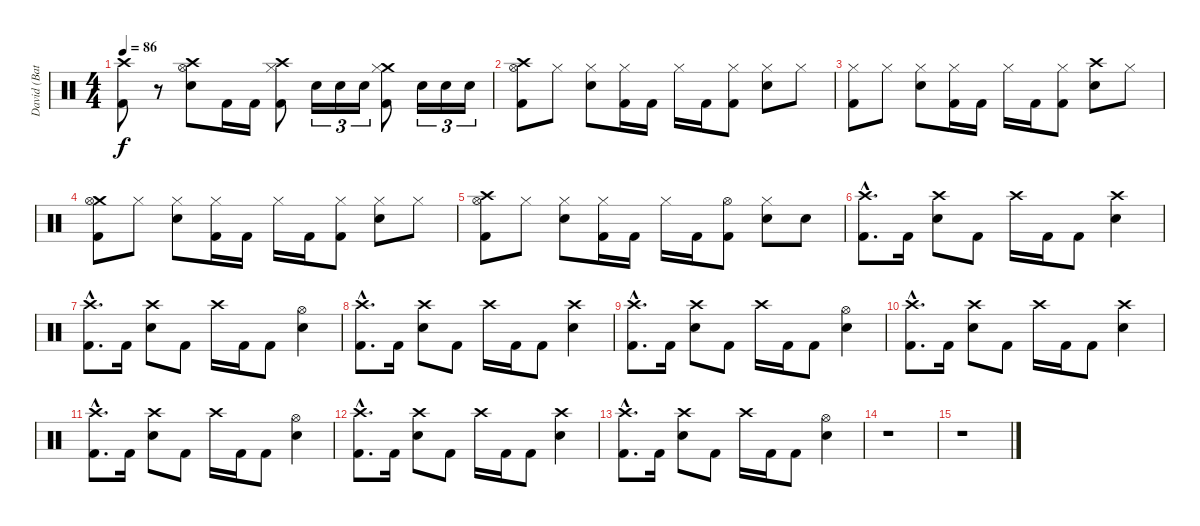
\track ("David (Batterie)" "David (Bat") {instrument percussion}
\staff {score}
\articulation defaults
\ts (4 4)
\tempo 86
\clef neutral
\ks c
("Crash high (hit)" "Kick (hit) 2").8{dy f} r.8 ("Crash high (hit)" "Hi-Hat (open)" "Electric Snare (hit)").8 "Kick (hit) 2".16 "Kick (hit) 2".16 ("Crash high (hit)" "Hi-Hat (closed)" "Kick (hit) 2").8 "Electric Snare (hit)".16{tu (3 2)} "Electric Snare (hit)".16{tu (3 2)} "Electric Snare (hit)".16{tu (3 2)} ("Crash medium (hit)" "Hi-Hat (closed)" "Kick (hit) 2").8 "Electric Snare (hit)".16{tu (3 2)} "Electric Snare (hit)".16{tu (3 2)} "Electric Snare (hit)".16{tu (3 2)} |
("Crash high (hit)" "Hi-Hat (open)" "Kick (hit) 2").8 "Hi-Hat (closed)".8 ("Hi-Hat (closed)" "Electric Snare (hit)").8 ("Hi-Hat (closed)" "Kick (hit) 2").16 "Kick (hit) 2".16 "Hi-Hat (closed)".16 "Kick (hit) 2".16 ("Hi-Hat (closed)" "Kick (hit) 2").8 ("Hi-Hat (closed)" "Electric Snare (hit)").8 "Hi-Hat (closed)".8 |
("Hi-Hat (closed)" "Kick (hit) 2").8 "Hi-Hat (closed)".8 ("Hi-Hat (closed)" "Electric Snare (hit)").8 ("Hi-Hat (closed)" "Kick (hit) 2").16 "Kick (hit) 2".16 "Hi-Hat (closed)".16 "Kick (hit) 2".16 ("Hi-Hat (closed)" "Kick (hit) 2").8 ("Crash high (hit)" "Electric Snare (hit)").8 "Hi-Hat (closed)".8 |
("Crash medium (hit)" "Hi-Hat (open)" "Kick (hit) 2").8 "Hi-Hat (closed)".8 ("Hi-Hat (closed)" "Electric Snare (hit)").8 ("Hi-Hat (closed)" "Kick (hit) 2").16 "Kick (hit) 2".16 "Hi-Hat (closed)".16 "Kick (hit) 2".16 ("Hi-Hat (closed)" "Kick (hit) 2").8 ("Hi-Hat (closed)" "Electric Snare (hit)").8 "Hi-Hat (closed)".8 |
("Crash high (hit)" "Hi-Hat (open)" "Kick (hit) 2").8 "Hi-Hat (closed)".8 ("Hi-Hat (closed)" "Electric Snare (hit)").8 ("Hi-Hat (closed)" "Kick (hit) 2").16 "Kick (hit) 2".16 "Hi-Hat (closed)".16 "Kick (hit) 2".16 ("Hi-Hat (open)" "Kick (hit) 2").8 ("Hi-Hat (closed)" "Electric Snare (hit)").8 "Electric Snare (hit)".8 |
("Crash high (hit)"{hac} "Kick (hit) 2"{hac}).8{d} "Kick (hit) 2".16 ("Crash high (hit)" "Electric Snare (hit)").8 "Kick (hit) 2".8 "Crash high (hit)".16 "Kick (hit) 2".16 "Kick (hit) 2".8 ("Crash high (hit)" "Electric Snare (hit)").4 |
("Crash high (hit)"{hac} "Kick (hit) 2"{hac}).8{d} "Kick (hit) 2".16 ("Crash high (hit)" "Electric Snare (hit)").8 "Kick (hit) 2".8 "Crash high (hit)".16 "Kick (hit) 2".16 "Kick (hit) 2".8 ("Hi-Hat (open)" "Electric Snare (hit)").4 |
("Crash high (hit)"{hac} "Kick (hit) 2"{hac}).8{d} "Kick (hit) 2".16 ("Crash high (hit)" "Electric Snare (hit)").8 "Kick (hit) 2".8 "Crash high (hit)".16 "Kick (hit) 2".16 "Kick (hit) 2".8 ("Crash high (hit)" "Electric Snare (hit)").4 |
("Crash high (hit)"{hac} "Kick (hit) 2"{hac}).8{d} "Kick (hit) 2".16 ("Crash high (hit)" "Electric Snare (hit)").8 "Kick (hit) 2".8 "Crash high (hit)".16 "Kick (hit) 2".16 "Kick (hit) 2".8 ("Hi-Hat (open)" "Electric Snare (hit)").4 |
("Crash high (hit)"{hac} "Kick (hit) 2"{hac}).8{d} "Kick (hit) 2".16 ("Crash high (hit)" "Electric Snare (hit)").8 "Kick (hit) 2".8 "Crash high (hit)".16 "Kick (hit) 2".16 "Kick (hit) 2".8 ("Crash high (hit)" "Electric Snare (hit)").4 |
("Crash high (hit)"{hac} "Kick (hit) 2"{hac}).8{d} "Kick (hit) 2".16 ("Crash high (hit)" "Electric Snare (hit)").8 "Kick (hit) 2".8 "Crash high (hit)".16 "Kick (hit) 2".16 "Kick (hit) 2".8 ("Hi-Hat (open)" "Electric Snare (hit)").4 |
("Crash high (hit)"{hac} "Kick (hit) 2"{hac}).8{d} "Kick (hit) 2".16 ("Crash high (hit)" "Electric Snare (hit)").8 "Kick (hit) 2".8 "Crash high (hit)".16 "Kick (hit) 2".16 "Kick (hit) 2".8 ("Crash high (hit)" "Electric Snare (hit)").4 |
("Crash high (hit)"{hac} "Kick (hit) 2"{hac}).8{d} "Kick (hit) 2".16 ("Crash high (hit)" "Electric Snare (hit)").8 "Kick (hit) 2".8 "Crash high (hit)".16 "Kick (hit) 2".16 "Kick (hit) 2".8 ("Hi-Hat (open)" "Electric Snare (hit)").4 |
r.1 |
r.1
